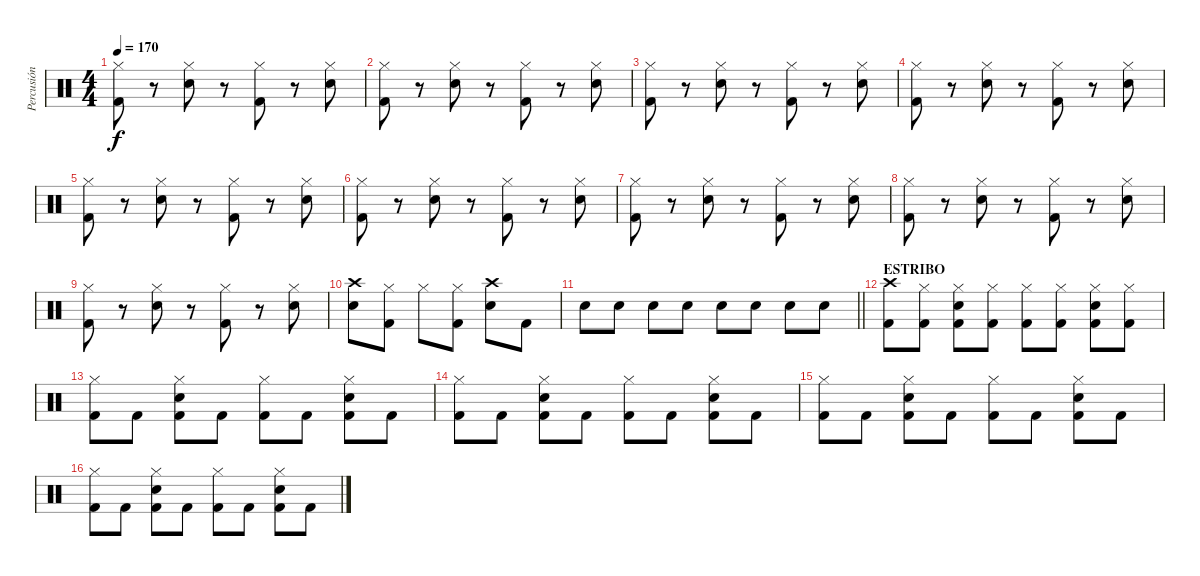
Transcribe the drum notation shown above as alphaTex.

\track ("Percusión" "Percusión") {instrument percussion}
\staff {score}
\articulation defaults
\ts (4 4)
\tempo 170
\clef neutral
\ks c
("Hi-Hat (closed)" "Kick (hit) 2").8{dy f} r.8 ("Hi-Hat (closed)" "Electric Snare (hit)").8 r.8 ("Hi-Hat (closed)" "Kick (hit) 2").8 r.8 ("Hi-Hat (closed)" "Electric Snare (hit)").8 |
("Hi-Hat (closed)" "Kick (hit) 2").8 r.8 ("Hi-Hat (closed)" "Electric Snare (hit)").8 r.8 ("Hi-Hat (closed)" "Kick (hit) 2").8 r.8 ("Hi-Hat (closed)" "Electric Snare (hit)").8 |
("Hi-Hat (closed)" "Kick (hit) 2").8 r.8 ("Hi-Hat (closed)" "Electric Snare (hit)").8 r.8 ("Hi-Hat (closed)" "Kick (hit) 2").8 r.8 ("Hi-Hat (closed)" "Electric Snare (hit)").8 |
("Hi-Hat (closed)" "Kick (hit) 2").8 r.8 ("Hi-Hat (closed)" "Electric Snare (hit)").8 r.8 ("Hi-Hat (closed)" "Kick (hit) 2").8 r.8 ("Hi-Hat (closed)" "Electric Snare (hit)").8 |
("Hi-Hat (closed)" "Kick (hit) 2").8 r.8 ("Hi-Hat (closed)" "Electric Snare (hit)").8 r.8 ("Hi-Hat (closed)" "Kick (hit) 2").8 r.8 ("Hi-Hat (closed)" "Electric Snare (hit)").8 |
("Hi-Hat (closed)" "Kick (hit) 2").8 r.8 ("Hi-Hat (closed)" "Electric Snare (hit)").8 r.8 ("Hi-Hat (closed)" "Kick (hit) 2").8 r.8 ("Hi-Hat (closed)" "Electric Snare (hit)").8 |
("Hi-Hat (closed)" "Kick (hit) 2").8 r.8 ("Hi-Hat (closed)" "Electric Snare (hit)").8 r.8 ("Hi-Hat (closed)" "Kick (hit) 2").8 r.8 ("Hi-Hat (closed)" "Electric Snare (hit)").8 |
("Hi-Hat (closed)" "Kick (hit) 2").8 r.8 ("Hi-Hat (closed)" "Electric Snare (hit)").8 r.8 ("Hi-Hat (closed)" "Kick (hit) 2").8 r.8 ("Hi-Hat (closed)" "Electric Snare (hit)").8 |
("Hi-Hat (closed)" "Kick (hit) 2").8 r.8 ("Hi-Hat (closed)" "Electric Snare (hit)").8 r.8 ("Hi-Hat (closed)" "Kick (hit) 2").8 r.8 ("Hi-Hat (closed)" "Electric Snare (hit)").8 |
("Crash high (hit)" "Electric Snare (hit)").8 ("Hi-Hat (closed)" "Kick (hit) 2").8 "Hi-Hat (closed)".8 ("Hi-Hat (closed)" "Kick (hit) 2").8 ("Crash high (hit)" "Electric Snare (hit)").8 "Kick (hit) 2".8 |
\barLineRight lightlight "Electric Snare (hit)".8 "Electric Snare (hit)".8 "Electric Snare (hit)".8 "Electric Snare (hit)".8 "Electric Snare (hit)".8 "Electric Snare (hit)".8 "Electric Snare (hit)".8 "Electric Snare (hit)".8
|
\section ("" "ESTRIBO")
("Crash high (hit)" "Kick (hit) 2").8 ("Hi-Hat (closed)" "Kick (hit) 2").8 ("Hi-Hat (closed)" "Electric Snare (hit)" "Kick (hit) 2").8 ("Hi-Hat (closed)" "Kick (hit) 2").8 ("Hi-Hat (closed)" "Kick (hit) 2").8 ("Hi-Hat (closed)" "Kick (hit) 2").8 ("Hi-Hat (closed)" "Electric Snare (hit)" "Kick (hit) 2").8 ("Hi-Hat (closed)" "Kick (hit) 2").8 |
("Hi-Hat (closed)" "Kick (hit) 2").8 "Kick (hit) 2".8 ("Hi-Hat (closed)" "Electric Snare (hit)" "Kick (hit) 2").8 "Kick (hit) 2".8 ("Hi-Hat (closed)" "Kick (hit) 2").8 "Kick (hit) 2".8 ("Hi-Hat (closed)" "Electric Snare (hit)" "Kick (hit) 2").8 "Kick (hit) 2".8 |
("Hi-Hat (closed)" "Kick (hit) 2").8 "Kick (hit) 2".8 ("Hi-Hat (closed)" "Electric Snare (hit)" "Kick (hit) 2").8 "Kick (hit) 2".8 ("Hi-Hat (closed)" "Kick (hit) 2").8 "Kick (hit) 2".8 ("Hi-Hat (closed)" "Electric Snare (hit)" "Kick (hit) 2").8 "Kick (hit) 2".8 |
("Hi-Hat (closed)" "Kick (hit) 2").8 "Kick (hit) 2".8 ("Hi-Hat (closed)" "Electric Snare (hit)" "Kick (hit) 2").8 "Kick (hit) 2".8 ("Hi-Hat (closed)" "Kick (hit) 2").8 "Kick (hit) 2".8 ("Hi-Hat (closed)" "Electric Snare (hit)" "Kick (hit) 2").8 "Kick (hit) 2".8 |
("Hi-Hat (closed)" "Kick (hit) 2").8 "Kick (hit) 2".8 ("Hi-Hat (closed)" "Electric Snare (hit)" "Kick (hit) 2").8 "Kick (hit) 2".8 ("Hi-Hat (closed)" "Kick (hit) 2").8 "Kick (hit) 2".8 ("Hi-Hat (closed)" "Electric Snare (hit)" "Kick (hit) 2").8 "Kick (hit) 2".8
